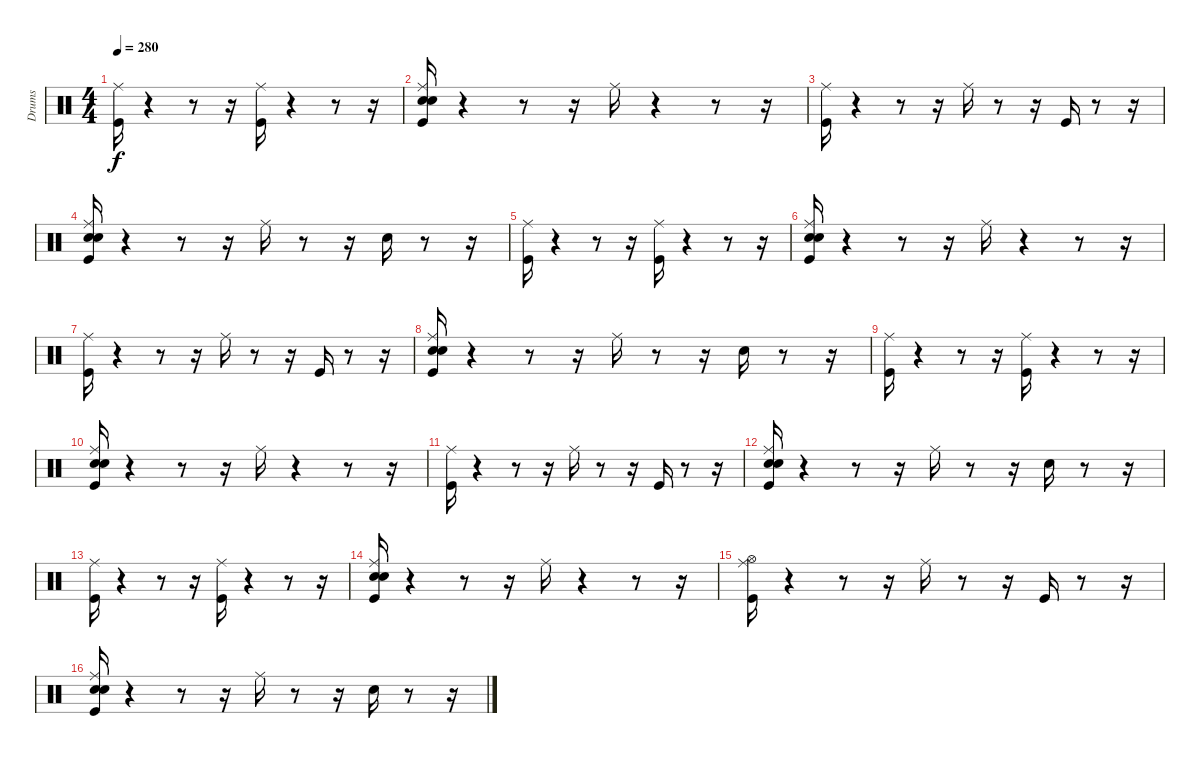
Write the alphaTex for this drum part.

\track ("Drums" "Drums") {instrument percussion}
\staff {score}
\articulation defaults
\ts (4 4)
\tempo 280
\clef neutral
\ks c
("Kick (hit)" "Ride (middle)").16{dy f} r.4 r.8 r.16 ("Kick (hit)" "Ride (middle)").16 r.4 r.8 r.16 |
("Kick (hit)" "Snare (hit) 2" "Electric Snare (hit)" "Ride (middle)").16 r.4 r.8 r.16 "Ride (middle)".16 r.4 r.8 r.16 |
("Kick (hit)" "Ride (middle)").16 r.4 r.8 r.16 "Ride (middle)".16 r.8 r.16 "Kick (hit)".16 r.8 r.16 |
("Kick (hit)" "Snare (hit) 2" "Electric Snare (hit)" "Ride (middle)").16 r.4 r.8 r.16 "Ride (middle)".16 r.8 r.16 "Snare (hit) 2".16 r.8 r.16 |
("Kick (hit)" "Ride (middle)").16 r.4 r.8 r.16 ("Kick (hit)" "Ride (middle)").16 r.4 r.8 r.16 |
("Kick (hit)" "Snare (hit) 2" "Electric Snare (hit)" "Ride (middle)").16 r.4 r.8 r.16 "Ride (middle)".16 r.4 r.8 r.16 |
("Kick (hit)" "Ride (middle)").16 r.4 r.8 r.16 "Ride (middle)".16 r.8 r.16 "Kick (hit)".16 r.8 r.16 |
("Kick (hit)" "Snare (hit) 2" "Electric Snare (hit)" "Ride (middle)").16 r.4 r.8 r.16 "Ride (middle)".16 r.8 r.16 "Snare (hit) 2".16 r.8 r.16 |
("Kick (hit)" "Ride (middle)").16 r.4 r.8 r.16 ("Kick (hit)" "Ride (middle)").16 r.4 r.8 r.16 |
("Kick (hit)" "Snare (hit) 2" "Electric Snare (hit)" "Ride (middle)").16 r.4 r.8 r.16 "Ride (middle)".16 r.4 r.8 r.16 |
("Kick (hit)" "Ride (middle)").16 r.4 r.8 r.16 "Ride (middle)".16 r.8 r.16 "Kick (hit)".16 r.8 r.16 |
("Kick (hit)" "Snare (hit) 2" "Electric Snare (hit)" "Ride (middle)").16 r.4 r.8 r.16 "Ride (middle)".16 r.8 r.16 "Snare (hit) 2".16 r.8 r.16 |
("Kick (hit)" "Ride (middle)").16 r.4 r.8 r.16 ("Kick (hit)" "Ride (middle)").16 r.4 r.8 r.16 |
("Kick (hit)" "Snare (hit) 2" "Electric Snare (hit)" "Ride (middle)").16 r.4 r.8 r.16 "Ride (middle)".16 r.4 r.8 r.16 |
("Kick (hit)" "Ride (middle)" "Hi-Hat (open)").16 r.4 r.8 r.16 "Ride (middle)".16 r.8 r.16 "Kick (hit)".16 r.8 r.16 |
("Kick (hit)" "Snare (hit) 2" "Electric Snare (hit)" "Ride (middle)").16 r.4 r.8 r.16 "Ride (middle)".16 r.8 r.16 "Snare (hit) 2".16 r.8 r.16
